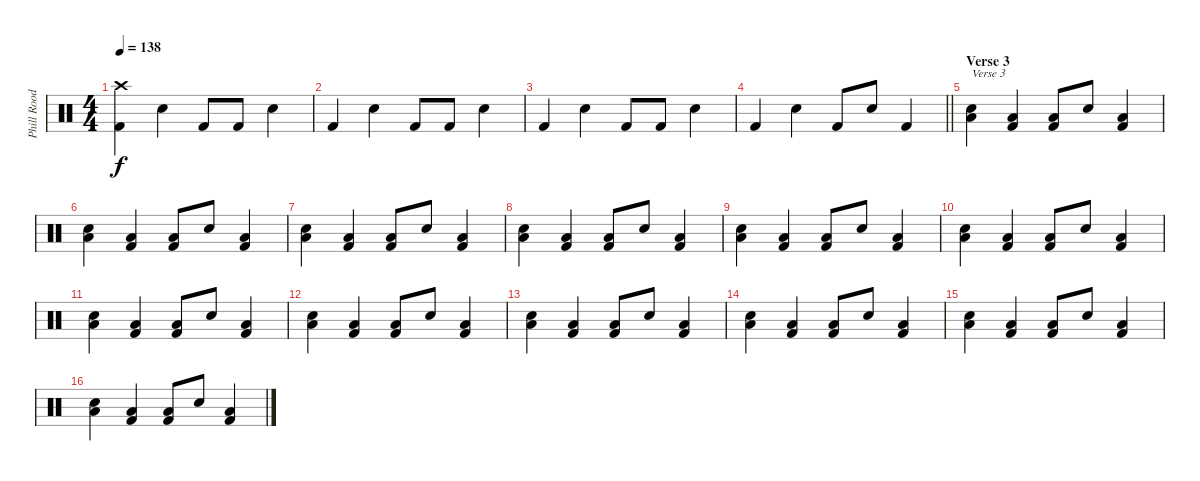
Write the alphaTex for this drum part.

\track ("Phill Rood" "Phill Rood") {instrument percussion}
\staff {score}
\articulation defaults
\ts (4 4)
\tempo 138
\clef neutral
\ks c
("Kick (hit) 2" "Crash high (hit)").4{dy f} "Snare (hit) 2".4 "Kick (hit) 2".8 "Kick (hit) 2".8 "Snare (hit) 2".4 |
"Kick (hit) 2".4 "Snare (hit) 2".4 "Kick (hit) 2".8 "Kick (hit) 2".8 "Snare (hit) 2".4 |
"Kick (hit) 2".4 "Snare (hit) 2".4 "Kick (hit) 2".8 "Kick (hit) 2".8 "Snare (hit) 2".4 |
\barLineRight lightlight "Kick (hit) 2".4 "Snare (hit) 2".4 "Kick (hit) 2".8 "Snare (hit) 2".8 "Kick (hit) 2".4
|
\section ("" "Verse 3")
("Snare (hit) 2" "Low Tom (hit)").4{txt "Verse 3"} ("Kick (hit) 2" "Low Tom (hit)").4 ("Kick (hit) 2" "Low Tom (hit)").8 "Snare (hit) 2".8 ("Kick (hit) 2" "Low Tom (hit)").4 |
("Snare (hit) 2" "Low Tom (hit)").4 ("Kick (hit) 2" "Low Tom (hit)").4 ("Kick (hit) 2" "Low Tom (hit)").8 "Snare (hit) 2".8 ("Kick (hit) 2" "Low Tom (hit)").4 |
("Snare (hit) 2" "Low Tom (hit)").4 ("Kick (hit) 2" "Low Tom (hit)").4 ("Kick (hit) 2" "Low Tom (hit)").8 "Snare (hit) 2".8 ("Kick (hit) 2" "Low Tom (hit)").4 |
("Snare (hit) 2" "Low Tom (hit)").4 ("Kick (hit) 2" "Low Tom (hit)").4 ("Kick (hit) 2" "Low Tom (hit)").8 "Snare (hit) 2".8 ("Kick (hit) 2" "Low Tom (hit)").4 |
("Snare (hit) 2" "Low Tom (hit)").4 ("Kick (hit) 2" "Low Tom (hit)").4 ("Kick (hit) 2" "Low Tom (hit)").8 "Snare (hit) 2".8 ("Kick (hit) 2" "Low Tom (hit)").4 |
("Snare (hit) 2" "Low Tom (hit)").4 ("Kick (hit) 2" "Low Tom (hit)").4 ("Kick (hit) 2" "Low Tom (hit)").8 "Snare (hit) 2".8 ("Kick (hit) 2" "Low Tom (hit)").4 |
("Snare (hit) 2" "Low Tom (hit)").4 ("Kick (hit) 2" "Low Tom (hit)").4 ("Kick (hit) 2" "Low Tom (hit)").8 "Snare (hit) 2".8 ("Kick (hit) 2" "Low Tom (hit)").4 |
("Snare (hit) 2" "Low Tom (hit)").4 ("Kick (hit) 2" "Low Tom (hit)").4 ("Kick (hit) 2" "Low Tom (hit)").8 "Snare (hit) 2".8 ("Kick (hit) 2" "Low Tom (hit)").4 |
("Snare (hit) 2" "Low Tom (hit)").4 ("Kick (hit) 2" "Low Tom (hit)").4 ("Kick (hit) 2" "Low Tom (hit)").8 "Snare (hit) 2".8 ("Kick (hit) 2" "Low Tom (hit)").4 |
("Snare (hit) 2" "Low Tom (hit)").4 ("Kick (hit) 2" "Low Tom (hit)").4 ("Kick (hit) 2" "Low Tom (hit)").8 "Snare (hit) 2".8 ("Kick (hit) 2" "Low Tom (hit)").4 |
("Snare (hit) 2" "Low Tom (hit)").4 ("Kick (hit) 2" "Low Tom (hit)").4 ("Kick (hit) 2" "Low Tom (hit)").8 "Snare (hit) 2".8 ("Kick (hit) 2" "Low Tom (hit)").4 |
("Snare (hit) 2" "Low Tom (hit)").4 ("Kick (hit) 2" "Low Tom (hit)").4 ("Kick (hit) 2" "Low Tom (hit)").8 "Snare (hit) 2".8 ("Kick (hit) 2" "Low Tom (hit)").4
